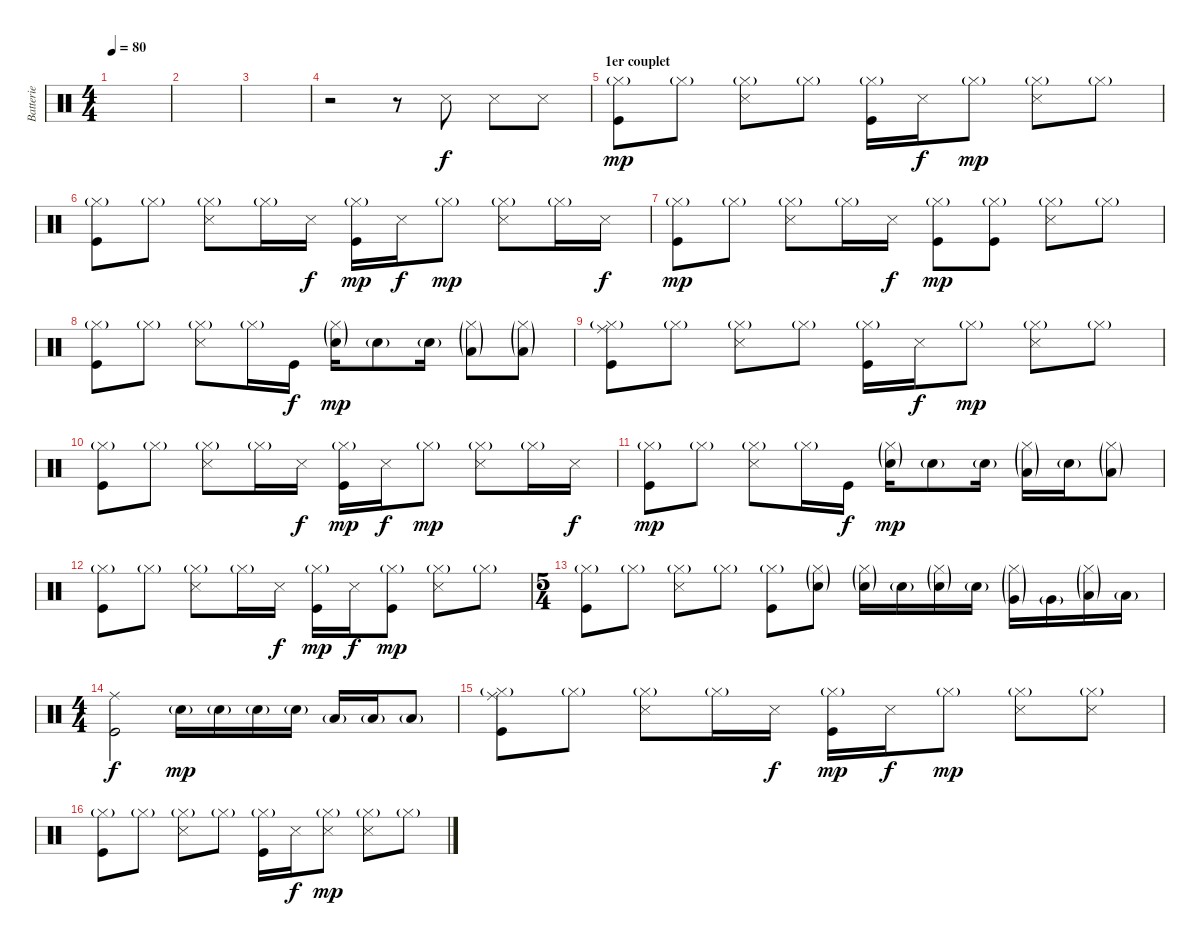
\track ("Batterie" "Batterie") {instrument percussion}
\staff {score}
\articulation defaults
\ts (4 4)
\tempo 80
\clef neutral
\ks c
|
|
|
r.2 r.8 "Snare (side stick) 3".8 "Snare (side stick) 3".8 "Snare (side stick) 3".8 |
\section ("" "1er couplet")
("Hi-Hat (closed)"{g} "Kick (hit)").8{dy mp} "Hi-Hat (closed)"{g}.8 ("Hi-Hat (closed)"{g} "Snare (side stick) 3").8 "Hi-Hat (closed)"{g}.8 ("Hi-Hat (closed)"{g} "Kick (hit)").16 "Snare (side stick) 3".16{dy f} "Hi-Hat (closed)"{g}.8{dy mp} ("Hi-Hat (closed)"{g} "Snare (side stick) 3").8 "Hi-Hat (closed)"{g}.8 |
("Hi-Hat (closed)"{g} "Kick (hit)").8 "Hi-Hat (closed)"{g}.8 ("Hi-Hat (closed)"{g} "Snare (side stick) 3").8 "Hi-Hat (closed)"{g}.16 "Snare (side stick) 3".16{dy f} ("Hi-Hat (closed)"{g} "Kick (hit)").16{dy mp} "Snare (side stick) 3".16{dy f} "Hi-Hat (closed)"{g}.8{dy mp} ("Hi-Hat (closed)"{g} "Snare (side stick) 3").8 "Hi-Hat (closed)"{g}.16 "Snare (side stick) 3".16{dy f} |
("Hi-Hat (closed)"{g} "Kick (hit)").8{dy mp} "Hi-Hat (closed)"{g}.8 ("Hi-Hat (closed)"{g} "Snare (side stick) 3").8 "Hi-Hat (closed)"{g}.16 "Snare (side stick) 3".16{dy f} ("Hi-Hat (closed)"{g} "Kick (hit)").8{dy mp} ("Hi-Hat (closed)"{g} "Kick (hit)").8 ("Hi-Hat (closed)"{g} "Snare (side stick) 3").8 "Hi-Hat (closed)"{g}.8 |
("Hi-Hat (closed)"{g} "Kick (hit)").8 "Hi-Hat (closed)"{g}.8 ("Hi-Hat (closed)"{g} "Snare (side stick) 3").8 "Hi-Hat (closed)"{g}.16 "Kick (hit)".16{dy f} ("Hi-Hat (closed)"{g} "Snare (hit) 2"{g}).16{dy mp} "Snare (hit) 2"{g}.8 "Snare (hit) 2"{g}.16 ("Hi-Hat (closed)"{g} "Low Floor Tom (hit)"{g}).8 ("Hi-Hat (closed)"{g} "Low Floor Tom (hit)"{g}).8 |
\section ("" "")
("Hi-Hat (closed)"{g} "Ride (middle)" "Kick (hit)").8 "Hi-Hat (closed)"{g}.8 ("Hi-Hat (closed)"{g} "Snare (side stick) 3").8 "Hi-Hat (closed)"{g}.8 ("Hi-Hat (closed)"{g} "Kick (hit)").16 "Snare (side stick) 3".16{dy f} "Hi-Hat (closed)"{g}.8{dy mp} ("Hi-Hat (closed)"{g} "Snare (side stick) 3").8 "Hi-Hat (closed)"{g}.8 |
("Hi-Hat (closed)"{g} "Kick (hit)").8 "Hi-Hat (closed)"{g}.8 ("Hi-Hat (closed)"{g} "Snare (side stick) 3").8 "Hi-Hat (closed)"{g}.16 "Snare (side stick) 3".16{dy f} ("Hi-Hat (closed)"{g} "Kick (hit)").16{dy mp} "Snare (side stick) 3".16{dy f} "Hi-Hat (closed)"{g}.8{dy mp} ("Hi-Hat (closed)"{g} "Snare (side stick) 3").8 "Hi-Hat (closed)"{g}.16 "Snare (side stick) 3".16{dy f} |
("Hi-Hat (closed)"{g} "Kick (hit)").8{dy mp} "Hi-Hat (closed)"{g}.8 ("Hi-Hat (closed)"{g} "Snare (side stick) 3").8 "Hi-Hat (closed)"{g}.16 "Kick (hit)".16{dy f} ("Hi-Hat (closed)"{g} "Snare (hit) 2"{g}).16{dy mp} "Snare (hit) 2"{g}.8 "Snare (hit) 2"{g}.16 ("Hi-Hat (closed)"{g} "Low Tom (hit)"{g}).16 "Snare (hit) 2"{g}.16 ("Hi-Hat (closed)"{g} "Low Tom (hit)"{g}).8 |
\section ("" "")
("Hi-Hat (closed)"{g} "Kick (hit)").8 "Hi-Hat (closed)"{g}.8 ("Hi-Hat (closed)"{g} "Snare (side stick) 3").8 "Hi-Hat (closed)"{g}.16 "Snare (side stick) 3".16{dy f} ("Hi-Hat (closed)"{g} "Kick (hit)").16{dy mp} "Snare (side stick) 3".16{dy f} ("Hi-Hat (closed)"{g} "Kick (hit)").8{dy mp} ("Hi-Hat (closed)"{g} "Snare (side stick) 3").8 "Hi-Hat (closed)"{g}.8 |
\ts (5 4)
("Hi-Hat (closed)"{g} "Kick (hit)").8 "Hi-Hat (closed)"{g}.8 ("Hi-Hat (closed)"{g} "Snare (side stick) 3").8 "Hi-Hat (closed)"{g}.8 ("Hi-Hat (closed)"{g} "Kick (hit)").8 ("Hi-Hat (closed)"{g} "Snare (hit) 2"{g}).8 ("Hi-Hat (closed)"{g} "Snare (hit) 2"{g}).16 "Snare (hit) 2"{g}.16 ("Hi-Hat (closed)"{g} "Snare (hit) 2"{g}).16 "Snare (hit) 2"{g}.16 ("Hi-Hat (closed)"{g} "Very Low Tom (hit)"{g}).16 "Very Low Tom (hit)"{g}.16 ("Hi-Hat (closed)"{g} "Low Tom (hit)"{g}).16 "Low Tom (hit)"{g}.16 |
\ts (4 4)
("Ride (middle)" "Kick (hit)").2{dy f} "Snare (hit) 2"{g}.16{dy mp} "Snare (hit) 2"{g}.16 "Snare (hit) 2"{g}.16 "Snare (hit) 2"{g}.16 "Low Tom (hit)"{g}.16 "Low Floor Tom (hit)"{g}.16 "Low Tom (hit)"{g}.8 |
\section ("" "")
("Hi-Hat (closed)"{g} "Ride (middle)" "Kick (hit)").8 "Hi-Hat (closed)"{g}.8 ("Hi-Hat (closed)"{g} "Snare (side stick) 3").8 "Hi-Hat (closed)"{g}.16 "Snare (side stick) 3".16{dy f} ("Hi-Hat (closed)"{g} "Kick (hit)").16{dy mp} "Snare (side stick) 3".16{dy f} "Hi-Hat (closed)"{g}.8{dy mp} ("Hi-Hat (closed)"{g} "Snare (side stick) 3").8 ("Hi-Hat (closed)"{g} "Snare (side stick) 3").8 |
("Hi-Hat (closed)"{g} "Kick (hit)").8 "Hi-Hat (closed)"{g}.8 ("Hi-Hat (closed)"{g} "Snare (side stick) 3").8 "Hi-Hat (closed)"{g}.8 ("Hi-Hat (closed)"{g} "Kick (hit)").16 "Snare (side stick) 3".16{dy f} ("Hi-Hat (closed)"{g} "Snare (side stick) 3").8{dy mp} ("Hi-Hat (closed)"{g} "Snare (side stick) 3").8 "Hi-Hat (closed)"{g}.8
